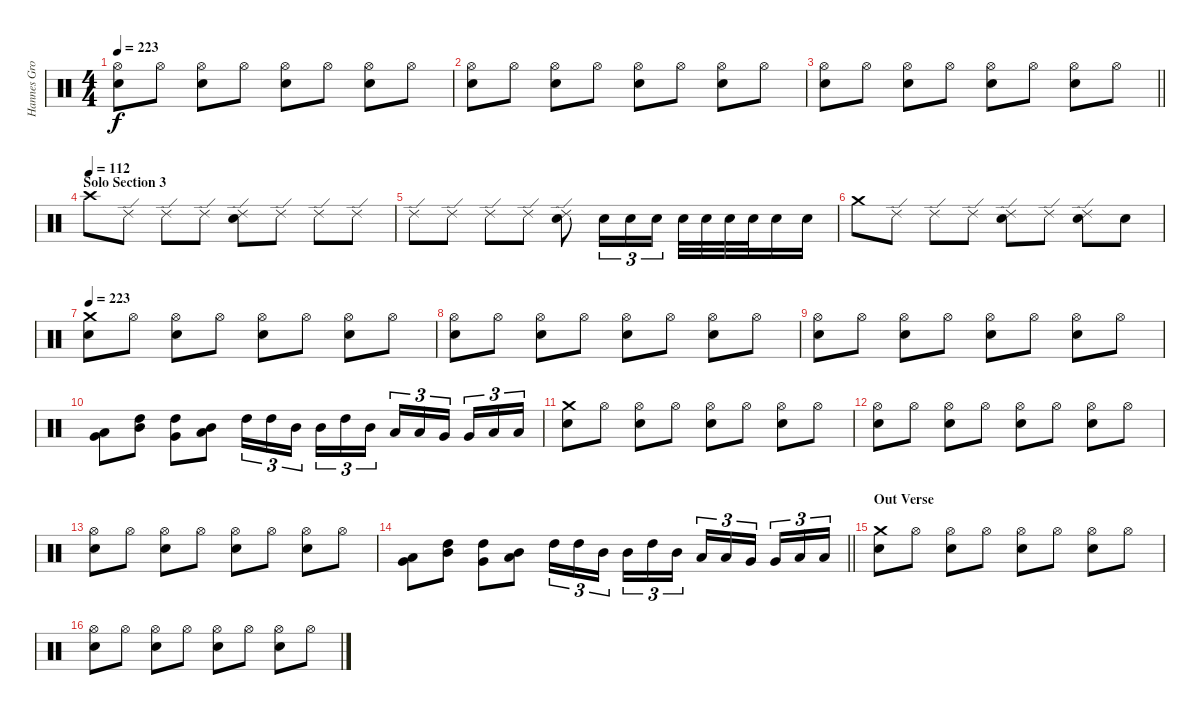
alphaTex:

\track ("Hannes Grossmann" "Hannes Gro") {instrument percussion}
\staff {score}
\articulation defaults
\ts (4 4)
\tempo 223
\clef neutral
\ks c
("Hi-Hat (open)" "Electric Snare (hit)").8{dy f} "Hi-Hat (open)".8 ("Hi-Hat (open)" "Electric Snare (hit)").8 "Hi-Hat (open)".8 ("Hi-Hat (open)" "Electric Snare (hit)").8 "Hi-Hat (open)".8 ("Hi-Hat (open)" "Electric Snare (hit)").8 "Hi-Hat (open)".8 |
("Hi-Hat (open)" "Electric Snare (hit)").8 "Hi-Hat (open)".8 ("Hi-Hat (open)" "Electric Snare (hit)").8 "Hi-Hat (open)".8 ("Hi-Hat (open)" "Electric Snare (hit)").8 "Hi-Hat (open)".8 ("Hi-Hat (open)" "Electric Snare (hit)").8 "Hi-Hat (open)".8 |
\barLineRight lightlight
("Hi-Hat (open)" "Electric Snare (hit)").8 "Hi-Hat (open)".8 ("Hi-Hat (open)" "Electric Snare (hit)").8 "Hi-Hat (open)".8 ("Hi-Hat (open)" "Electric Snare (hit)").8 "Hi-Hat (open)".8 ("Hi-Hat (open)" "Electric Snare (hit)").8 "Hi-Hat (open)".8 |
\section ("" "Solo Section 3")
\tempo (112)
"Crash high (hit)".8 "Ride (edge) 2".8 "Ride (edge) 2".8 "Ride (edge) 2".8 ("Ride (edge) 2" "Electric Snare (hit)").8 "Ride (edge) 2".8 "Ride (edge) 2".8 "Ride (edge) 2".8 |
"Ride (edge) 2".8 "Ride (edge) 2".8 "Ride (edge) 2".8 "Ride (edge) 2".8 ("Ride (edge) 2" "Electric Snare (hit)").8 "Electric Snare (hit)".16{tu (3 2)} "Electric Snare (hit)".16{tu (3 2)} "Electric Snare (hit)".16{tu (3 2)} "Electric Snare (hit)".32 "Electric Snare (hit)".32 "Electric Snare (hit)".32 "Electric Snare (hit)".32 "Electric Snare (hit)".16 "Electric Snare (hit)".16 |
"Crash medium (hit)".8 "Ride (edge) 2".8 "Ride (edge) 2".8 "Ride (edge) 2".8 ("Ride (edge) 2" "Electric Snare (hit)").8 "Ride (edge) 2".8 ("Ride (edge) 2" "Electric Snare (hit)").8 "Electric Snare (hit)".8 |
\tempo 223
("Crash medium (hit)" "Electric Snare (hit)").8 "Hi-Hat (open)".8 ("Hi-Hat (open)" "Electric Snare (hit)").8 "Hi-Hat (open)".8 ("Hi-Hat (open)" "Electric Snare (hit)").8 "Hi-Hat (open)".8 ("Hi-Hat (open)" "Electric Snare (hit)").8 "Hi-Hat (open)".8 |
("Hi-Hat (open)" "Electric Snare (hit)").8 "Hi-Hat (open)".8 ("Hi-Hat (open)" "Electric Snare (hit)").8 "Hi-Hat (open)".8 ("Hi-Hat (open)" "Electric Snare (hit)").8 "Hi-Hat (open)".8 ("Hi-Hat (open)" "Electric Snare (hit)").8 "Hi-Hat (open)".8 |
("Hi-Hat (open)" "Electric Snare (hit)").8 "Hi-Hat (open)".8 ("Hi-Hat (open)" "Electric Snare (hit)").8 "Hi-Hat (open)".8 ("Hi-Hat (open)" "Electric Snare (hit)").8 "Hi-Hat (open)".8 ("Hi-Hat (open)" "Electric Snare (hit)").8 "Hi-Hat (open)".8 |
("Very Low Tom (hit)" "Low Tom (hit)").8 ("Mid Tom (hit)" "High Tom (hit)").8 ("High Tom (hit)" "Very Low Tom (hit)").8 ("Low Floor Tom (hit)" "Mid Tom (hit)").8 "High Tom (hit)".16{tu (3 2)} "High Tom (hit)".16{tu (3 2)} "Mid Tom (hit)".16{tu (3 2) beam splitsecondary} "Mid Tom (hit)".16{tu (3 2)} "High Tom (hit)".16{tu (3 2)} "Mid Tom (hit)".16{tu (3 2)} "Low Tom (hit)".16{tu (3 2)} "Low Tom (hit)".16{tu (3 2)} "Very Low Tom (hit)".16{tu (3 2) beam splitsecondary} "Very Low Tom (hit)".16{tu (3 2)} "Low Floor Tom (hit)".16{tu (3 2)} "Low Floor Tom (hit)".16{tu (3 2)} |
("Crash medium (hit)" "Electric Snare (hit)").8 "Hi-Hat (open)".8 ("Hi-Hat (open)" "Electric Snare (hit)").8 "Hi-Hat (open)".8 ("Hi-Hat (open)" "Electric Snare (hit)").8 "Hi-Hat (open)".8 ("Hi-Hat (open)" "Electric Snare (hit)").8 "Hi-Hat (open)".8 |
("Hi-Hat (open)" "Electric Snare (hit)").8 "Hi-Hat (open)".8 ("Hi-Hat (open)" "Electric Snare (hit)").8 "Hi-Hat (open)".8 ("Hi-Hat (open)" "Electric Snare (hit)").8 "Hi-Hat (open)".8 ("Hi-Hat (open)" "Electric Snare (hit)").8 "Hi-Hat (open)".8 |
("Hi-Hat (open)" "Electric Snare (hit)").8 "Hi-Hat (open)".8 ("Hi-Hat (open)" "Electric Snare (hit)").8 "Hi-Hat (open)".8 ("Hi-Hat (open)" "Electric Snare (hit)").8 "Hi-Hat (open)".8 ("Hi-Hat (open)" "Electric Snare (hit)").8 "Hi-Hat (open)".8 |
\barLineRight lightlight
("Very Low Tom (hit)" "Low Tom (hit)").8 ("Mid Tom (hit)" "High Tom (hit)").8 ("High Tom (hit)" "Very Low Tom (hit)").8 ("Low Floor Tom (hit)" "Mid Tom (hit)").8 "High Tom (hit)".16{tu (3 2)} "High Tom (hit)".16{tu (3 2)} "Mid Tom (hit)".16{tu (3 2) beam splitsecondary} "Mid Tom (hit)".16{tu (3 2)} "High Tom (hit)".16{tu (3 2)} "Mid Tom (hit)".16{tu (3 2)} "Low Tom (hit)".16{tu (3 2)} "Low Tom (hit)".16{tu (3 2)} "Very Low Tom (hit)".16{tu (3 2) beam splitsecondary} "Very Low Tom (hit)".16{tu (3 2)} "Low Floor Tom (hit)".16{tu (3 2)} "Low Floor Tom (hit)".16{tu (3 2)} |
\section ("" "Out Verse")
("Crash medium (hit)" "Electric Snare (hit)").8 "Hi-Hat (open)".8 ("Hi-Hat (open)" "Electric Snare (hit)").8 "Hi-Hat (open)".8 ("Hi-Hat (open)" "Electric Snare (hit)").8 "Hi-Hat (open)".8 ("Hi-Hat (open)" "Electric Snare (hit)").8 "Hi-Hat (open)".8 |
("Hi-Hat (open)" "Electric Snare (hit)").8 "Hi-Hat (open)".8 ("Hi-Hat (open)" "Electric Snare (hit)").8 "Hi-Hat (open)".8 ("Hi-Hat (open)" "Electric Snare (hit)").8 "Hi-Hat (open)".8 ("Hi-Hat (open)" "Electric Snare (hit)").8 "Hi-Hat (open)".8
